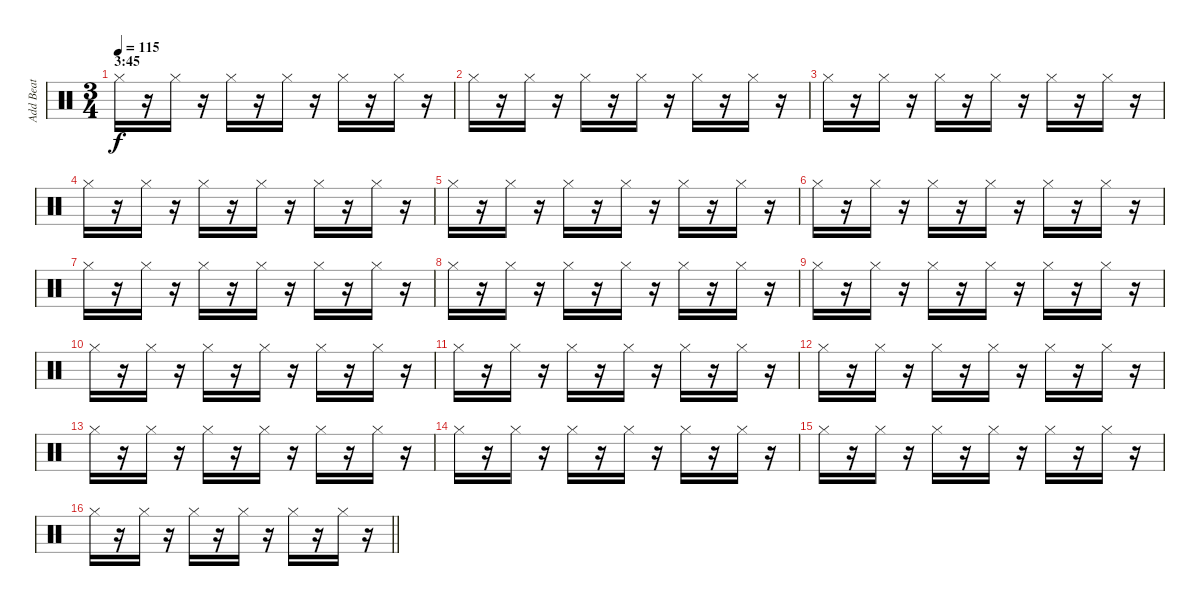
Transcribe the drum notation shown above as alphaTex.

\track ("Add Beat" "Add Beat") {instrument percussion}
\staff {score}
\articulation defaults
\ts (3 4)
\section ("" "3:45")
\tempo 115
\clef neutral
\ks c "Hi-Hat (closed)".16{dy f}
r.16 "Hi-Hat (closed)".16 r.16 "Hi-Hat (closed)".16 r.16 "Hi-Hat (closed)".16 r.16 "Hi-Hat (closed)".16 r.16 "Hi-Hat (closed)".16 r.16 |
"Hi-Hat (closed)".16 r.16 "Hi-Hat (closed)".16 r.16 "Hi-Hat (closed)".16 r.16 "Hi-Hat (closed)".16 r.16 "Hi-Hat (closed)".16 r.16 "Hi-Hat (closed)".16 r.16 |
"Hi-Hat (closed)".16 r.16 "Hi-Hat (closed)".16 r.16 "Hi-Hat (closed)".16 r.16 "Hi-Hat (closed)".16 r.16 "Hi-Hat (closed)".16 r.16 "Hi-Hat (closed)".16 r.16 |
"Hi-Hat (closed)".16 r.16 "Hi-Hat (closed)".16 r.16 "Hi-Hat (closed)".16 r.16 "Hi-Hat (closed)".16 r.16 "Hi-Hat (closed)".16 r.16 "Hi-Hat (closed)".16 r.16 |
"Hi-Hat (closed)".16 r.16 "Hi-Hat (closed)".16 r.16 "Hi-Hat (closed)".16 r.16 "Hi-Hat (closed)".16 r.16 "Hi-Hat (closed)".16 r.16 "Hi-Hat (closed)".16 r.16 |
"Hi-Hat (closed)".16 r.16 "Hi-Hat (closed)".16 r.16 "Hi-Hat (closed)".16 r.16 "Hi-Hat (closed)".16 r.16 "Hi-Hat (closed)".16 r.16 "Hi-Hat (closed)".16 r.16 |
"Hi-Hat (closed)".16 r.16 "Hi-Hat (closed)".16 r.16 "Hi-Hat (closed)".16 r.16 "Hi-Hat (closed)".16 r.16 "Hi-Hat (closed)".16 r.16 "Hi-Hat (closed)".16 r.16 |
"Hi-Hat (closed)".16 r.16 "Hi-Hat (closed)".16 r.16 "Hi-Hat (closed)".16 r.16 "Hi-Hat (closed)".16 r.16 "Hi-Hat (closed)".16 r.16 "Hi-Hat (closed)".16 r.16 |
"Hi-Hat (closed)".16 r.16 "Hi-Hat (closed)".16 r.16 "Hi-Hat (closed)".16 r.16 "Hi-Hat (closed)".16 r.16 "Hi-Hat (closed)".16 r.16 "Hi-Hat (closed)".16 r.16 |
"Hi-Hat (closed)".16 r.16 "Hi-Hat (closed)".16 r.16 "Hi-Hat (closed)".16 r.16 "Hi-Hat (closed)".16 r.16 "Hi-Hat (closed)".16 r.16 "Hi-Hat (closed)".16 r.16 |
"Hi-Hat (closed)".16 r.16 "Hi-Hat (closed)".16 r.16 "Hi-Hat (closed)".16 r.16 "Hi-Hat (closed)".16 r.16 "Hi-Hat (closed)".16 r.16 "Hi-Hat (closed)".16 r.16 |
"Hi-Hat (closed)".16 r.16 "Hi-Hat (closed)".16 r.16 "Hi-Hat (closed)".16 r.16 "Hi-Hat (closed)".16 r.16 "Hi-Hat (closed)".16 r.16 "Hi-Hat (closed)".16 r.16 |
"Hi-Hat (closed)".16 r.16 "Hi-Hat (closed)".16 r.16 "Hi-Hat (closed)".16 r.16 "Hi-Hat (closed)".16 r.16 "Hi-Hat (closed)".16 r.16 "Hi-Hat (closed)".16 r.16 |
"Hi-Hat (closed)".16 r.16 "Hi-Hat (closed)".16 r.16 "Hi-Hat (closed)".16 r.16 "Hi-Hat (closed)".16 r.16 "Hi-Hat (closed)".16 r.16 "Hi-Hat (closed)".16 r.16 |
"Hi-Hat (closed)".16 r.16 "Hi-Hat (closed)".16 r.16 "Hi-Hat (closed)".16 r.16 "Hi-Hat (closed)".16 r.16 "Hi-Hat (closed)".16 r.16 "Hi-Hat (closed)".16 r.16 |
\barLineRight lightlight "Hi-Hat (closed)".16
r.16 "Hi-Hat (closed)".16 r.16 "Hi-Hat (closed)".16 r.16 "Hi-Hat (closed)".16 r.16 "Hi-Hat (closed)".16 r.16 "Hi-Hat (closed)".16 r.16
